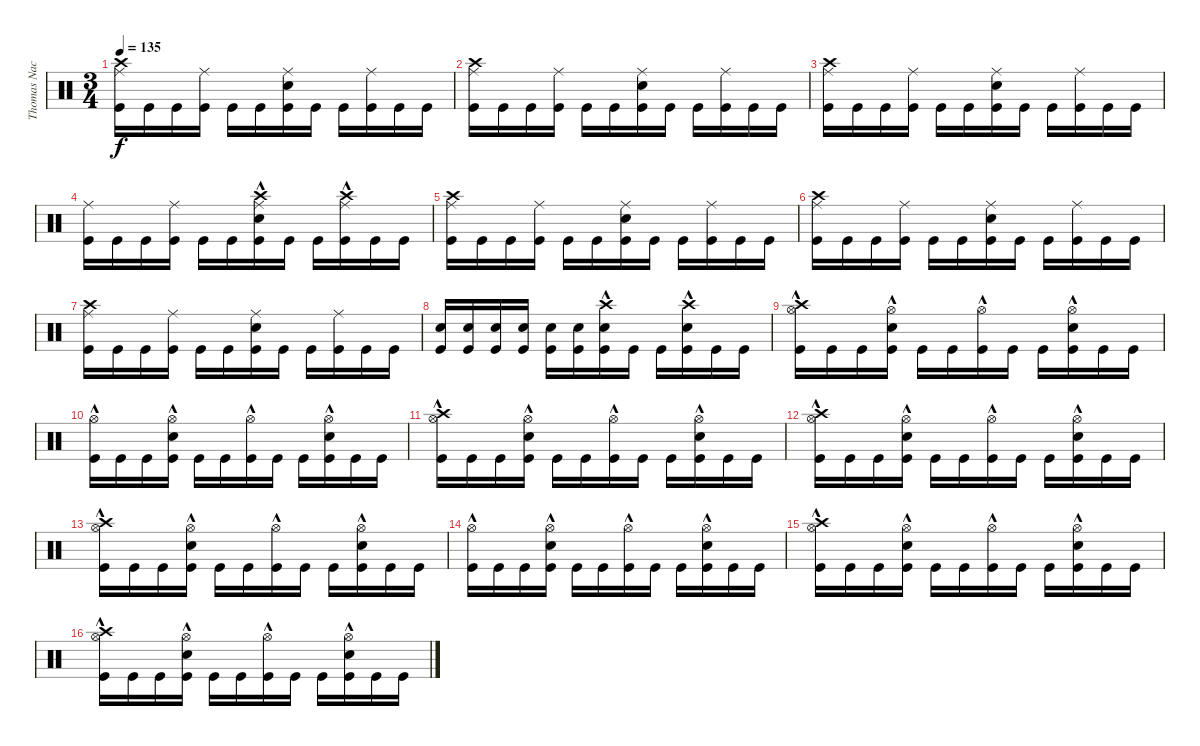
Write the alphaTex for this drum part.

\track ("Thomas Nack" "Thomas Nac") {instrument percussion}
\staff {score}
\articulation defaults
\ts (3 4)
\tempo 135
\clef neutral
\ks c
("Ride (middle)" "Crash high (hit)" "Kick (hit)").16{dy f} "Kick (hit)".16 "Kick (hit)".16 ("Ride (middle)" "Kick (hit)").16 "Kick (hit)".16 "Kick (hit)".16 ("Ride (middle)" "Electric Snare (hit)" "Kick (hit)").16 "Kick (hit)".16 "Kick (hit)".16 ("Ride (middle)" "Kick (hit)").16 "Kick (hit)".16 "Kick (hit)".16 |
("Ride (middle)" "Crash high (hit)" "Kick (hit)").16 "Kick (hit)".16 "Kick (hit)".16 ("Ride (middle)" "Kick (hit)").16 "Kick (hit)".16 "Kick (hit)".16 ("Ride (middle)" "Electric Snare (hit)" "Kick (hit)").16 "Kick (hit)".16 "Kick (hit)".16 ("Ride (middle)" "Kick (hit)").16 "Kick (hit)".16 "Kick (hit)".16 |
("Ride (middle)" "Crash high (hit)" "Kick (hit)").16 "Kick (hit)".16 "Kick (hit)".16 ("Ride (middle)" "Kick (hit)").16 "Kick (hit)".16 "Kick (hit)".16 ("Ride (middle)" "Electric Snare (hit)" "Kick (hit)").16 "Kick (hit)".16 "Kick (hit)".16 ("Ride (middle)" "Kick (hit)").16 "Kick (hit)".16 "Kick (hit)".16 |
("Kick (hit)" "Ride (middle)").16 "Kick (hit)".16 "Kick (hit)".16 ("Kick (hit)" "Ride (middle)").16 "Kick (hit)".16 "Kick (hit)".16 ("Electric Snare (hit)" "Kick (hit)" "Ride (middle)" "Crash high (hit)"{hac}).16 "Kick (hit)".16 "Kick (hit)".16 ("Kick (hit)" "Ride (middle)" "Crash high (hit)"{hac}).16 "Kick (hit)".16 "Kick (hit)".16 |
("Ride (middle)" "Crash high (hit)" "Kick (hit)").16 "Kick (hit)".16 "Kick (hit)".16 ("Ride (middle)" "Kick (hit)").16 "Kick (hit)".16 "Kick (hit)".16 ("Ride (middle)" "Electric Snare (hit)" "Kick (hit)").16 "Kick (hit)".16 "Kick (hit)".16 ("Ride (middle)" "Kick (hit)").16 "Kick (hit)".16 "Kick (hit)".16 |
("Ride (middle)" "Crash high (hit)" "Kick (hit)").16 "Kick (hit)".16 "Kick (hit)".16 ("Ride (middle)" "Kick (hit)").16 "Kick (hit)".16 "Kick (hit)".16 ("Ride (middle)" "Electric Snare (hit)" "Kick (hit)").16 "Kick (hit)".16 "Kick (hit)".16 ("Ride (middle)" "Kick (hit)").16 "Kick (hit)".16 "Kick (hit)".16 |
("Ride (middle)" "Crash high (hit)" "Kick (hit)").16 "Kick (hit)".16 "Kick (hit)".16 ("Ride (middle)" "Kick (hit)").16 "Kick (hit)".16 "Kick (hit)".16 ("Ride (middle)" "Electric Snare (hit)" "Kick (hit)").16 "Kick (hit)".16 "Kick (hit)".16 ("Ride (middle)" "Kick (hit)").16 "Kick (hit)".16 "Kick (hit)".16 |
("Kick (hit)" "Electric Snare (hit)").16 ("Kick (hit)" "Electric Snare (hit)").16 ("Kick (hit)" "Electric Snare (hit)").16 ("Kick (hit)" "Electric Snare (hit)").16 ("Kick (hit)" "Electric Snare (hit)").16 ("Electric Snare (hit)" "Kick (hit)").16 ("Crash high (hit)"{hac} "Kick (hit)" "Electric Snare (hit)").16 "Kick (hit)".16 "Kick (hit)".16 ("Crash high (hit)"{hac} "Kick (hit)" "Electric Snare (hit)").16 "Kick (hit)".16 "Kick (hit)".16 |
("Crash high (hit)" "Hi-Hat (open)"{hac} "Kick (hit)").16 "Kick (hit)".16 "Kick (hit)".16 ("Hi-Hat (open)"{hac} "Kick (hit)" "Electric Snare (hit)").16 "Kick (hit)".16 "Kick (hit)".16 ("Hi-Hat (open)"{hac} "Kick (hit)").16 "Kick (hit)".16 "Kick (hit)".16 ("Hi-Hat (open)"{hac} "Kick (hit)" "Electric Snare (hit)").16 "Kick (hit)".16 "Kick (hit)".16 |
("Hi-Hat (open)"{hac} "Kick (hit)").16 "Kick (hit)".16 "Kick (hit)".16 ("Hi-Hat (open)"{hac} "Kick (hit)" "Electric Snare (hit)").16 "Kick (hit)".16 "Kick (hit)".16 ("Hi-Hat (open)"{hac} "Kick (hit)").16 "Kick (hit)".16 "Kick (hit)".16 ("Hi-Hat (open)"{hac} "Kick (hit)" "Electric Snare (hit)").16 "Kick (hit)".16 "Kick (hit)".16 |
("Crash high (hit)" "Hi-Hat (open)"{hac} "Kick (hit)").16 "Kick (hit)".16 "Kick (hit)".16 ("Hi-Hat (open)"{hac} "Kick (hit)" "Electric Snare (hit)").16 "Kick (hit)".16 "Kick (hit)".16 ("Hi-Hat (open)"{hac} "Kick (hit)").16 "Kick (hit)".16 "Kick (hit)".16 ("Hi-Hat (open)"{hac} "Kick (hit)" "Electric Snare (hit)").16 "Kick (hit)".16 "Kick (hit)".16 |
("Crash high (hit)" "Hi-Hat (open)"{hac} "Kick (hit)").16 "Kick (hit)".16 "Kick (hit)".16 ("Hi-Hat (open)"{hac} "Kick (hit)" "Electric Snare (hit)").16 "Kick (hit)".16 "Kick (hit)".16 ("Hi-Hat (open)"{hac} "Kick (hit)").16 "Kick (hit)".16 "Kick (hit)".16 ("Hi-Hat (open)"{hac} "Kick (hit)" "Electric Snare (hit)").16 "Kick (hit)".16 "Kick (hit)".16 |
("Crash high (hit)" "Hi-Hat (open)"{hac} "Kick (hit)").16 "Kick (hit)".16 "Kick (hit)".16 ("Hi-Hat (open)"{hac} "Kick (hit)" "Electric Snare (hit)").16 "Kick (hit)".16 "Kick (hit)".16 ("Hi-Hat (open)"{hac} "Kick (hit)").16 "Kick (hit)".16 "Kick (hit)".16 ("Hi-Hat (open)"{hac} "Kick (hit)" "Electric Snare (hit)").16 "Kick (hit)".16 "Kick (hit)".16 |
("Hi-Hat (open)"{hac} "Kick (hit)").16 "Kick (hit)".16 "Kick (hit)".16 ("Hi-Hat (open)"{hac} "Kick (hit)" "Electric Snare (hit)").16 "Kick (hit)".16 "Kick (hit)".16 ("Hi-Hat (open)"{hac} "Kick (hit)").16 "Kick (hit)".16 "Kick (hit)".16 ("Hi-Hat (open)"{hac} "Kick (hit)" "Electric Snare (hit)").16 "Kick (hit)".16 "Kick (hit)".16 |
("Crash high (hit)" "Hi-Hat (open)"{hac} "Kick (hit)").16 "Kick (hit)".16 "Kick (hit)".16 ("Hi-Hat (open)"{hac} "Kick (hit)" "Electric Snare (hit)").16 "Kick (hit)".16 "Kick (hit)".16 ("Hi-Hat (open)"{hac} "Kick (hit)").16 "Kick (hit)".16 "Kick (hit)".16 ("Hi-Hat (open)"{hac} "Kick (hit)" "Electric Snare (hit)").16 "Kick (hit)".16 "Kick (hit)".16 |
("Crash high (hit)" "Hi-Hat (open)"{hac} "Kick (hit)").16 "Kick (hit)".16 "Kick (hit)".16 ("Hi-Hat (open)"{hac} "Kick (hit)" "Electric Snare (hit)").16 "Kick (hit)".16 "Kick (hit)".16 ("Hi-Hat (open)"{hac} "Kick (hit)").16 "Kick (hit)".16 "Kick (hit)".16 ("Hi-Hat (open)"{hac} "Kick (hit)" "Electric Snare (hit)").16 "Kick (hit)".16 "Kick (hit)".16
